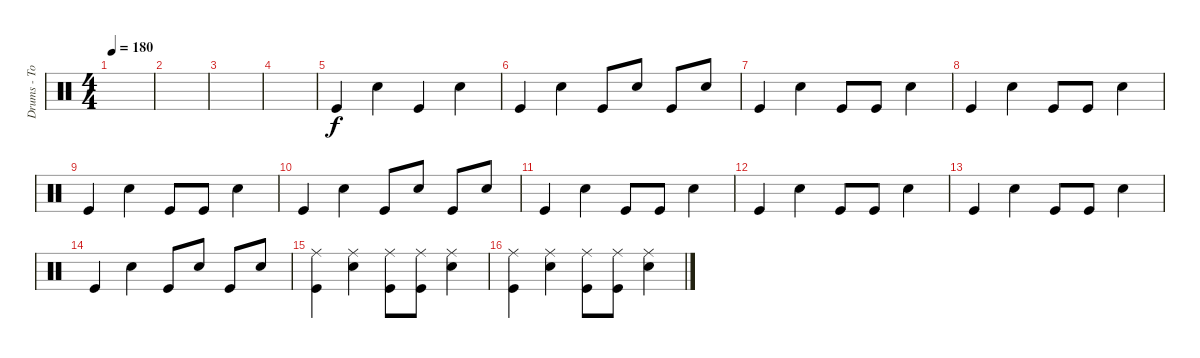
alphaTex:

\track ("Drums - Tom" "Drums - To") {instrument percussion}
\staff {score}
\articulation defaults
\ts (4 4)
\tempo 180
\clef neutral
\ks c
|
|
|
|
"Kick (hit)".4 "Snare (hit) 2".4 "Kick (hit)".4 "Snare (hit) 2".4 |
"Kick (hit)".4 "Snare (hit) 2".4 "Kick (hit)".8 "Snare (hit) 2".8 "Kick (hit)".8 "Snare (hit) 2".8 |
"Kick (hit)".4 "Snare (hit) 2".4 "Kick (hit)".8 "Kick (hit)".8 "Snare (hit) 2".4 |
"Kick (hit)".4 "Snare (hit) 2".4 "Kick (hit)".8 "Kick (hit)".8 "Snare (hit) 2".4 |
"Kick (hit)".4 "Snare (hit) 2".4 "Kick (hit)".8 "Kick (hit)".8 "Snare (hit) 2".4 |
"Kick (hit)".4 "Snare (hit) 2".4 "Kick (hit)".8 "Snare (hit) 2".8 "Kick (hit)".8 "Snare (hit) 2".8 |
"Kick (hit)".4 "Snare (hit) 2".4 "Kick (hit)".8 "Kick (hit)".8 "Snare (hit) 2".4 |
"Kick (hit)".4 "Snare (hit) 2".4 "Kick (hit)".8 "Kick (hit)".8 "Snare (hit) 2".4 |
"Kick (hit)".4 "Snare (hit) 2".4 "Kick (hit)".8 "Kick (hit)".8 "Snare (hit) 2".4 |
"Kick (hit)".4 "Snare (hit) 2".4 "Kick (hit)".8 "Snare (hit) 2".8 "Kick (hit)".8 "Snare (hit) 2".8 |
("Ride (middle)" "Kick (hit)").4 ("Ride (middle)" "Snare (hit) 2").4 ("Ride (middle)" "Kick (hit)").8 ("Ride (middle)" "Kick (hit)").8 ("Ride (middle)" "Snare (hit) 2").4 |
("Ride (middle)" "Kick (hit)").4 ("Ride (middle)" "Snare (hit) 2").4 ("Ride (middle)" "Kick (hit)").8 ("Ride (middle)" "Kick (hit)").8 ("Ride (middle)" "Snare (hit) 2").4
